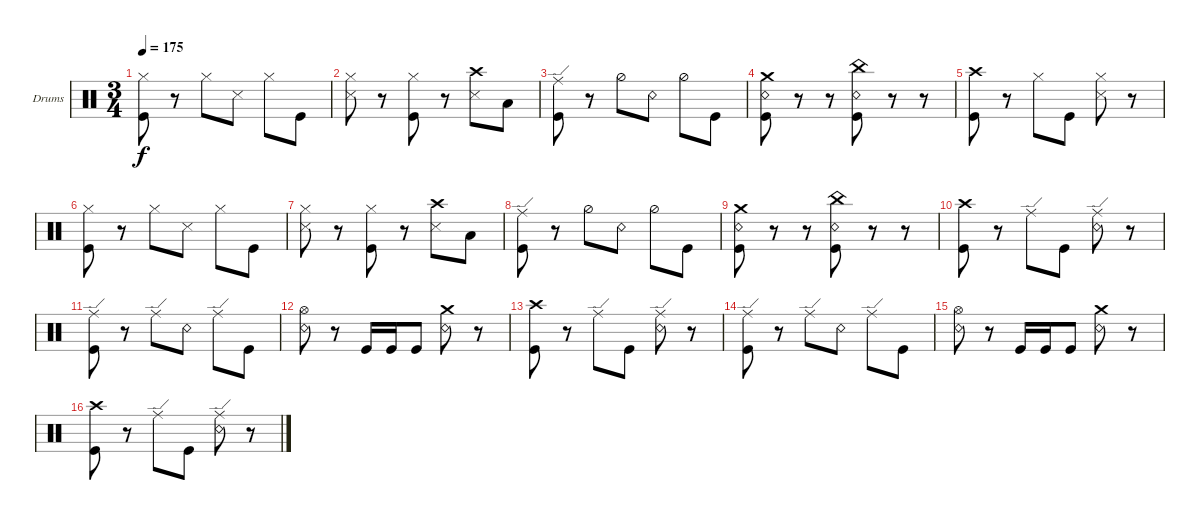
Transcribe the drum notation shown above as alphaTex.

\bracketExtendMode groupsimilarinstruments
\firstSystemTrackNameOrientation horizontal
\otherSystemsTrackNameOrientation horizontal
\track ("Drumkit" "Drums") {instrument percussion}
\staff {score}
\articulation defaults
\ts (3 4)
\tempo 175
\clef neutral
\ks c
("Kick (hit)" "Hi-Hat (closed)").8{dy f} r.8 "Hi-Hat (closed)".8 "Snare (side stick) 3".8 "Hi-Hat (closed)".8 "Kick (hit)".8 |
("Snare (side stick) 3" "Hi-Hat (closed)").8 r.8 ("Kick (hit)" "Hi-Hat (closed)").8 r.8 ("Crash high (hit)" "Snare (side stick) 3").8 "Low Tom (hit)".8 |
("Kick (hit)" "Ride (edge)").8 r.8 "Hi-Hat (half)".8 "Snare (rim shot)".8 "Hi-Hat (half)".8 "Kick (hit)".8 |
("Crash medium (hit)" "Snare (rim shot)" "Kick (hit)").8 r.8 r.8 ("China (hit)" "Snare (rim shot)" "Kick (hit)").8 r.8 r.8 |
("Kick (hit)" "Crash high (hit)").8 r.8 "Hi-Hat (closed)".8 "Kick (hit)".8 ("Hi-Hat (closed)" "Snare (side stick) 3").8 r.8 |
("Kick (hit)" "Hi-Hat (closed)").8 r.8 "Hi-Hat (closed)".8 "Snare (side stick) 3".8 "Hi-Hat (closed)".8 "Kick (hit)".8 |
("Snare (side stick) 3" "Hi-Hat (closed)").8 r.8 ("Kick (hit)" "Hi-Hat (closed)").8 r.8 ("Crash high (hit)" "Snare (side stick) 3").8 "Low Tom (hit)".8 |
("Kick (hit)" "Ride (edge)").8 r.8 "Hi-Hat (half)".8 "Snare (rim shot)".8 "Hi-Hat (half)".8 "Kick (hit)".8 |
("Crash medium (hit)" "Snare (rim shot)" "Kick (hit)").8 r.8 r.8 ("China (hit)" "Snare (rim shot)" "Kick (hit)").8 r.8 r.8 |
("Kick (hit)" "Crash high (hit)").8 r.8 "Ride (edge)".8 "Kick (hit)".8 ("Snare (rim shot)" "Ride (edge)").8 r.8 |
("Kick (hit)" "Ride (edge)").8 r.8 "Ride (edge)".8 "Snare (rim shot)".8 "Ride (edge)".8 "Kick (hit)".8 |
("Snare (rim shot)" "Hi-Hat (open)").8 r.8 "Kick (hit)".16 "Kick (hit)".16 "Kick (hit)".8 ("Snare (rim shot)" "Crash medium (hit)").8 r.8 |
("Kick (hit)" "Crash high (hit)").8 r.8 "Ride (edge)".8 "Kick (hit)".8 ("Snare (rim shot)" "Ride (edge)").8 r.8 |
("Kick (hit)" "Ride (edge)").8 r.8 "Ride (edge)".8 "Snare (rim shot)".8 "Ride (edge)".8 "Kick (hit)".8 |
("Snare (rim shot)" "Hi-Hat (open)").8 r.8 "Kick (hit)".16 "Kick (hit)".16 "Kick (hit)".8 ("Snare (rim shot)" "Crash medium (hit)").8 r.8 |
("Kick (hit)" "Crash high (hit)").8 r.8 "Ride (edge)".8 "Kick (hit)".8 ("Snare (rim shot)" "Ride (edge)").8 r.8
